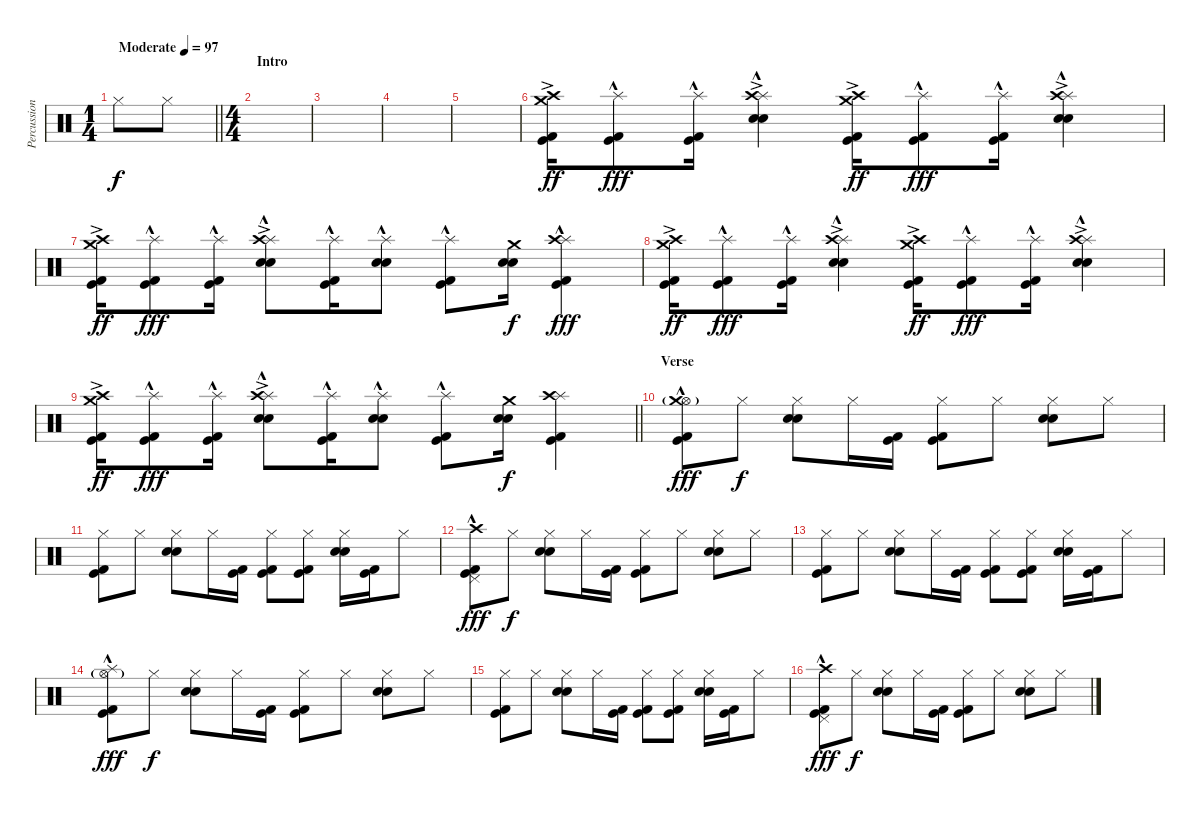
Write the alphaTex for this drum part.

\track ("Percussion" "Percussion") {instrument percussion}
\staff {score}
\articulation defaults
\ts (1 4)
\tempo (97 "Moderate")
\clef neutral
\barLineRight lightlight
\ks c "Hi-Hat (closed)".8{dy f} "Hi-Hat (closed)".8
|
\ts (4 4)
\section ("" "Intro")
|
|
|
|
("Kick (hit) 2" "Kick (hit)" "Crash high (hit)"{ac} "Crash medium (hit)"{ac}).16{dy ff} ("Kick (hit) 2" "Kick (hit)" "Splash (hit)"{hac}).8{dy fff} ("Kick (hit) 2" "Kick (hit)" "Splash (hit)"{hac}).16 ("Electric Snare (hit)" "Snare (hit) 2" "Splash (hit)"{ac} "Crash high (hit)"{hac}).4 ("Kick (hit) 2" "Kick (hit)" "Crash high (hit)"{ac} "Crash medium (hit)"{ac}).16{dy ff} ("Kick (hit) 2" "Kick (hit)" "Splash (hit)"{hac}).8{dy fff} ("Kick (hit) 2" "Kick (hit)" "Splash (hit)"{hac}).16 ("Electric Snare (hit)" "Snare (hit) 2" "Splash (hit)"{ac} "Crash high (hit)"{hac}).4 |
("Kick (hit) 2" "Kick (hit)" "Crash high (hit)"{ac} "Crash medium (hit)"{ac}).16{dy ff} ("Kick (hit) 2" "Kick (hit)" "Splash (hit)"{hac}).8{dy fff} ("Kick (hit) 2" "Kick (hit)" "Splash (hit)"{hac}).16 ("Electric Snare (hit)" "Snare (hit) 2" "Splash (hit)"{ac} "Crash high (hit)"{hac}).8 ("Kick (hit) 2" "Kick (hit)" "Splash (hit)"{hac}).16 ("Electric Snare (hit)" "Snare (hit) 2" "Splash (hit)"{hac}).8 ("Kick (hit) 2" "Kick (hit)" "Splash (hit)"{hac}).8 ("Electric Snare (hit)" "Snare (hit) 2" "Crash medium (hit)").16{dy f} ("Kick (hit) 2" "Kick (hit)" "Splash (hit)"{hac} "Crash high (hit)").4{dy fff} |
("Kick (hit) 2" "Kick (hit)" "Crash high (hit)"{ac} "Crash medium (hit)"{ac}).16{dy ff} ("Kick (hit) 2" "Kick (hit)" "Splash (hit)"{hac}).8{dy fff} ("Kick (hit) 2" "Kick (hit)" "Splash (hit)"{hac}).16 ("Electric Snare (hit)" "Snare (hit) 2" "Splash (hit)"{ac} "Crash high (hit)"{hac}).4 ("Kick (hit) 2" "Kick (hit)" "Crash high (hit)"{ac} "Crash medium (hit)"{ac}).16{dy ff} ("Kick (hit) 2" "Kick (hit)" "Splash (hit)"{hac}).8{dy fff} ("Kick (hit) 2" "Kick (hit)" "Splash (hit)"{hac}).16 ("Electric Snare (hit)" "Snare (hit) 2" "Splash (hit)"{ac} "Crash high (hit)"{hac}).4 |
\barLineRight lightlight
("Kick (hit) 2" "Kick (hit)" "Crash high (hit)"{ac} "Crash medium (hit)"{ac}).16{dy ff} ("Kick (hit) 2" "Kick (hit)" "Splash (hit)"{hac}).8{dy fff} ("Kick (hit) 2" "Kick (hit)" "Splash (hit)"{hac}).16 ("Electric Snare (hit)" "Snare (hit) 2" "Splash (hit)"{ac} "Crash high (hit)"{hac}).8 ("Kick (hit) 2" "Kick (hit)" "Splash (hit)"{hac}).16 ("Electric Snare (hit)" "Snare (hit) 2" "Splash (hit)"{hac}).8 ("Kick (hit) 2" "Kick (hit)" "Splash (hit)"{hac}).8 ("Electric Snare (hit)" "Snare (hit) 2" "Crash medium (hit)").16{dy f} ("Kick (hit) 2" "Kick (hit)" "Splash (hit)" "Crash high (hit)").4 |
\section ("" "Verse")
("Kick (hit) 2" "Kick (hit)" "Hi-Hat (open)"{g} "Crash medium (hit)"{hac}).8{dy fff} "Hi-Hat (closed)".8{dy f} ("Electric Snare (hit)" "Snare (hit) 2" "Hi-Hat (closed)").8 "Hi-Hat (closed)".16 ("Kick (hit) 2" "Kick (hit)").16 ("Kick (hit) 2" "Kick (hit)" "Hi-Hat (closed)").8 "Hi-Hat (closed)".8 ("Electric Snare (hit)" "Snare (hit) 2" "Hi-Hat (closed)").8 "Hi-Hat (closed)".8 |
("Kick (hit) 2" "Kick (hit)" "Hi-Hat (closed)").8 "Hi-Hat (closed)".8 ("Electric Snare (hit)" "Snare (hit) 2" "Hi-Hat (closed)").8 "Hi-Hat (closed)".16 ("Kick (hit) 2" "Kick (hit)").16 ("Kick (hit) 2" "Kick (hit)" "Hi-Hat (closed)").8 ("Kick (hit) 2" "Kick (hit)" "Hi-Hat (closed)").8 ("Electric Snare (hit)" "Snare (hit) 2" "Hi-Hat (closed)").16 ("Kick (hit) 2" "Kick (hit)").16 "Hi-Hat (closed)".8 |
("Kick (hit) 2" "Kick (hit)" "Pedal Hi-Hat (hit)" "Crash high (hit)"{hac}).8{dy fff} "Hi-Hat (closed)".8{dy f} ("Electric Snare (hit)" "Snare (hit) 2" "Hi-Hat (closed)").8 "Hi-Hat (closed)".16 ("Kick (hit) 2" "Kick (hit)").16 ("Kick (hit) 2" "Kick (hit)" "Hi-Hat (closed)").8 "Hi-Hat (closed)".8 ("Electric Snare (hit)" "Snare (hit) 2" "Hi-Hat (closed)").8 "Hi-Hat (closed)".8 |
("Kick (hit) 2" "Kick (hit)" "Hi-Hat (closed)").8 "Hi-Hat (closed)".8 ("Electric Snare (hit)" "Snare (hit) 2" "Hi-Hat (closed)").8 "Hi-Hat (closed)".16 ("Kick (hit) 2" "Kick (hit)").16 ("Kick (hit) 2" "Kick (hit)" "Hi-Hat (closed)").8 ("Kick (hit) 2" "Kick (hit)" "Hi-Hat (closed)").8 ("Electric Snare (hit)" "Snare (hit) 2" "Hi-Hat (closed)").16 ("Kick (hit) 2" "Kick (hit)").16 "Hi-Hat (closed)".8 |
("Kick (hit) 2" "Kick (hit)" "Hi-Hat (open)"{g} "Splash (hit)"{hac}).8{dy fff} "Hi-Hat (closed)".8{dy f} ("Electric Snare (hit)" "Snare (hit) 2" "Hi-Hat (closed)").8 "Hi-Hat (closed)".16 ("Kick (hit) 2" "Kick (hit)").16 ("Kick (hit) 2" "Kick (hit)" "Hi-Hat (closed)").8 "Hi-Hat (closed)".8 ("Electric Snare (hit)" "Snare (hit) 2" "Hi-Hat (closed)").8 "Hi-Hat (closed)".8 |
("Kick (hit) 2" "Kick (hit)" "Hi-Hat (closed)").8 "Hi-Hat (closed)".8 ("Electric Snare (hit)" "Snare (hit) 2" "Hi-Hat (closed)").8 "Hi-Hat (closed)".16 ("Kick (hit) 2" "Kick (hit)").16 ("Kick (hit) 2" "Kick (hit)" "Hi-Hat (closed)").8 ("Kick (hit) 2" "Kick (hit)" "Hi-Hat (closed)").8 ("Electric Snare (hit)" "Snare (hit) 2" "Hi-Hat (closed)").16 ("Kick (hit) 2" "Kick (hit)").16 "Hi-Hat (closed)".8 |
("Kick (hit) 2" "Kick (hit)" "Pedal Hi-Hat (hit)" "Crash high (hit)"{hac}).8{dy fff} "Hi-Hat (closed)".8{dy f} ("Electric Snare (hit)" "Snare (hit) 2" "Hi-Hat (closed)").8 "Hi-Hat (closed)".16 ("Kick (hit) 2" "Kick (hit)").16 ("Kick (hit) 2" "Kick (hit)" "Hi-Hat (closed)").8 "Hi-Hat (closed)".8 ("Electric Snare (hit)" "Snare (hit) 2" "Hi-Hat (closed)").8 "Hi-Hat (closed)".8
